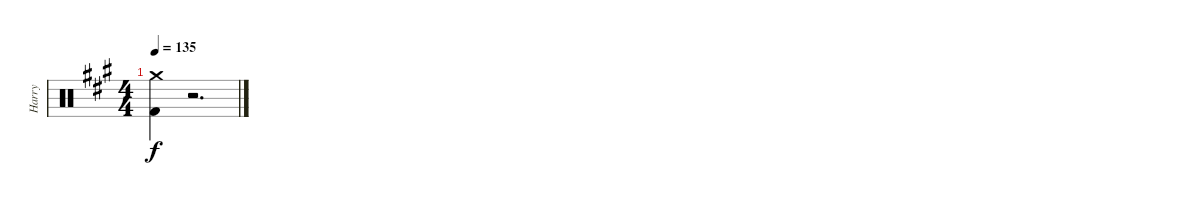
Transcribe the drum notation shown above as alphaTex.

\track ("Harry" "Harry") {instrument percussion}
\staff {score}
\articulation defaults
\ts (4 4)
\tempo 135
\clef neutral
\ks a
("Crash medium (hit)" "Kick (hit) 2").4{dy f} r.2{d}
